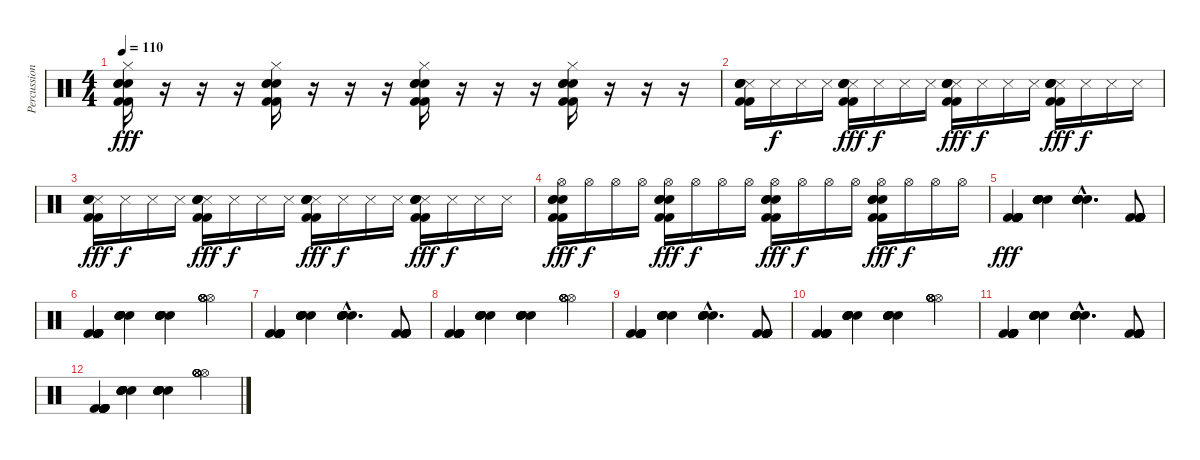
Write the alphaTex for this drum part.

\track ("Percussion" "Percussion") {instrument percussion}
\staff {score}
\articulation defaults
\ts (4 4)
\tempo 110
\clef neutral
\ks c
("Hi-Hat (closed)" "Electric Snare (hit)" "Kick (hit) 2" "Electric Snare (hit)" "Kick (hit) 2" "Electric Snare (hit)").16{dy fff volume 16} r.16 r.16 r.16 ("Hi-Hat (closed)" "Electric Snare (hit)" "Kick (hit) 2" "Electric Snare (hit)" "Kick (hit) 2" "Electric Snare (hit)").16 r.16 r.16 r.16 ("Hi-Hat (closed)" "Electric Snare (hit)" "Kick (hit) 2" "Electric Snare (hit)" "Kick (hit) 2" "Electric Snare (hit)").16 r.16 r.16 r.16 ("Hi-Hat (closed)" "Electric Snare (hit)" "Kick (hit) 2" "Electric Snare (hit)" "Kick (hit) 2" "Electric Snare (hit)").16 r.16 r.16 r.16 |
("Metronome (hit)" "Electric Snare (hit)" "Kick (hit) 2" "Electric Snare (hit)" "Kick (hit) 2" "Electric Snare (hit)").16 "Metronome (hit)".16{dy f} "Metronome (hit)".16 "Metronome (hit)".16 ("Metronome (hit)" "Electric Snare (hit)" "Kick (hit) 2" "Electric Snare (hit)" "Kick (hit) 2" "Electric Snare (hit)").16{dy fff} "Metronome (hit)".16{dy f} "Metronome (hit)".16 "Metronome (hit)".16 ("Metronome (hit)" "Electric Snare (hit)" "Kick (hit) 2" "Electric Snare (hit)" "Kick (hit) 2" "Electric Snare (hit)").16{dy fff} "Metronome (hit)".16{dy f} "Metronome (hit)".16 "Metronome (hit)".16 ("Metronome (hit)" "Electric Snare (hit)" "Kick (hit) 2" "Electric Snare (hit)" "Kick (hit) 2" "Electric Snare (hit)").16{dy fff} "Metronome (hit)".16{dy f} "Metronome (hit)".16 "Metronome (hit)".16 |
("Metronome (hit)" "Electric Snare (hit)" "Kick (hit) 2" "Electric Snare (hit)" "Kick (hit) 2" "Electric Snare (hit)").16{dy fff} "Metronome (hit)".16{dy f} "Metronome (hit)".16 "Metronome (hit)".16 ("Metronome (hit)" "Electric Snare (hit)" "Kick (hit) 2" "Electric Snare (hit)" "Kick (hit) 2" "Electric Snare (hit)").16{dy fff} "Metronome (hit)".16{dy f} "Metronome (hit)".16 "Metronome (hit)".16 ("Metronome (hit)" "Electric Snare (hit)" "Kick (hit) 2" "Electric Snare (hit)" "Kick (hit) 2" "Electric Snare (hit)").16{dy fff} "Metronome (hit)".16{dy f} "Metronome (hit)".16 "Metronome (hit)".16 ("Metronome (hit)" "Electric Snare (hit)" "Kick (hit) 2" "Electric Snare (hit)" "Kick (hit) 2" "Electric Snare (hit)").16{dy fff} "Metronome (hit)".16{dy f} "Metronome (hit)".16 "Metronome (hit)".16 |
("Hi-Hat (open)" "Electric Snare (hit)" "Kick (hit) 2" "Electric Snare (hit)" "Kick (hit) 2" "Electric Snare (hit)").16{dy fff} "Hi-Hat (open)".16{dy f} "Hi-Hat (open)".16 "Hi-Hat (open)".16 ("Hi-Hat (open)" "Electric Snare (hit)" "Kick (hit) 2" "Electric Snare (hit)" "Kick (hit) 2" "Electric Snare (hit)").16{dy fff} "Hi-Hat (open)".16{dy f} "Hi-Hat (open)".16 "Hi-Hat (open)".16 ("Hi-Hat (open)" "Electric Snare (hit)" "Kick (hit) 2" "Electric Snare (hit)" "Kick (hit) 2" "Electric Snare (hit)").16{dy fff} "Hi-Hat (open)".16{dy f} "Hi-Hat (open)".16 "Hi-Hat (open)".16 ("Hi-Hat (open)" "Electric Snare (hit)" "Kick (hit) 2" "Electric Snare (hit)" "Kick (hit) 2" "Electric Snare (hit)").16{dy fff} "Hi-Hat (open)".16{dy f} "Hi-Hat (open)".16 "Hi-Hat (open)".16 |
("Kick (hit) 2" "Kick (hit) 2" "Kick (hit) 2" "Kick (hit) 2" "Kick (hit) 2" "Kick (hit) 2").4{dy fff volume 16} ("Snare (hit) 2" "Snare (hit) 2" "Snare (hit) 2" "Snare (hit) 2" "Snare (hit) 2" "Snare (hit) 2").4 ("Snare (hit) 2"{hac} "Snare (hit) 2"{hac} "Snare (hit) 2"{hac} "Snare (hit) 2"{hac} "Snare (hit) 2"{hac} "Snare (hit) 2"{hac}).4{d} ("Kick (hit) 2" "Kick (hit) 2" "Kick (hit) 2" "Kick (hit) 2" "Kick (hit) 2" "Kick (hit) 2").8 |
("Kick (hit) 2" "Kick (hit) 2" "Kick (hit) 2" "Kick (hit) 2" "Kick (hit) 2" "Kick (hit) 2").4{volume 16} ("Snare (hit) 2" "Snare (hit) 2" "Snare (hit) 2" "Snare (hit) 2" "Snare (hit) 2" "Snare (hit) 2").4 ("Snare (hit) 2" "Snare (hit) 2" "Snare (hit) 2" "Snare (hit) 2" "Snare (hit) 2" "Snare (hit) 2").4 ("Hi-Hat (open)" "Hi-Hat (open)" "Hi-Hat (open)" "Hi-Hat (open)" "Hi-Hat (open)" "Hi-Hat (open)").4 |
("Kick (hit) 2" "Kick (hit) 2" "Kick (hit) 2" "Kick (hit) 2" "Kick (hit) 2" "Kick (hit) 2").4{volume 16} ("Snare (hit) 2" "Snare (hit) 2" "Snare (hit) 2" "Snare (hit) 2" "Snare (hit) 2" "Snare (hit) 2").4 ("Snare (hit) 2"{hac} "Snare (hit) 2"{hac} "Snare (hit) 2"{hac} "Snare (hit) 2"{hac} "Snare (hit) 2"{hac} "Snare (hit) 2"{hac}).4{d} ("Kick (hit) 2" "Kick (hit) 2" "Kick (hit) 2" "Kick (hit) 2" "Kick (hit) 2" "Kick (hit) 2").8 |
("Kick (hit) 2" "Kick (hit) 2" "Kick (hit) 2" "Kick (hit) 2" "Kick (hit) 2" "Kick (hit) 2").4{volume 16} ("Snare (hit) 2" "Snare (hit) 2" "Snare (hit) 2" "Snare (hit) 2" "Snare (hit) 2" "Snare (hit) 2").4 ("Snare (hit) 2" "Snare (hit) 2" "Snare (hit) 2" "Snare (hit) 2" "Snare (hit) 2" "Snare (hit) 2").4 ("Hi-Hat (open)" "Hi-Hat (open)" "Hi-Hat (open)" "Hi-Hat (open)" "Hi-Hat (open)" "Hi-Hat (open)").4 |
("Kick (hit) 2" "Kick (hit) 2" "Kick (hit) 2" "Kick (hit) 2" "Kick (hit) 2" "Kick (hit) 2").4{volume 16} ("Snare (hit) 2" "Snare (hit) 2" "Snare (hit) 2" "Snare (hit) 2" "Snare (hit) 2" "Snare (hit) 2").4 ("Snare (hit) 2"{hac} "Snare (hit) 2"{hac} "Snare (hit) 2"{hac} "Snare (hit) 2"{hac} "Snare (hit) 2"{hac} "Snare (hit) 2"{hac}).4{d} ("Kick (hit) 2" "Kick (hit) 2" "Kick (hit) 2" "Kick (hit) 2" "Kick (hit) 2" "Kick (hit) 2").8 |
("Kick (hit) 2" "Kick (hit) 2" "Kick (hit) 2" "Kick (hit) 2" "Kick (hit) 2" "Kick (hit) 2").4{volume 16} ("Snare (hit) 2" "Snare (hit) 2" "Snare (hit) 2" "Snare (hit) 2" "Snare (hit) 2" "Snare (hit) 2").4 ("Snare (hit) 2" "Snare (hit) 2" "Snare (hit) 2" "Snare (hit) 2" "Snare (hit) 2" "Snare (hit) 2").4 ("Hi-Hat (open)" "Hi-Hat (open)" "Hi-Hat (open)" "Hi-Hat (open)" "Hi-Hat (open)" "Hi-Hat (open)").4 |
("Kick (hit) 2" "Kick (hit) 2" "Kick (hit) 2" "Kick (hit) 2" "Kick (hit) 2" "Kick (hit) 2").4{volume 16} ("Snare (hit) 2" "Snare (hit) 2" "Snare (hit) 2" "Snare (hit) 2" "Snare (hit) 2" "Snare (hit) 2").4 ("Snare (hit) 2"{hac} "Snare (hit) 2"{hac} "Snare (hit) 2"{hac} "Snare (hit) 2"{hac} "Snare (hit) 2"{hac} "Snare (hit) 2"{hac}).4{d} ("Kick (hit) 2" "Kick (hit) 2" "Kick (hit) 2" "Kick (hit) 2" "Kick (hit) 2" "Kick (hit) 2").8 |
("Kick (hit) 2" "Kick (hit) 2" "Kick (hit) 2" "Kick (hit) 2" "Kick (hit) 2" "Kick (hit) 2").4{volume 16} ("Snare (hit) 2" "Snare (hit) 2" "Snare (hit) 2" "Snare (hit) 2" "Snare (hit) 2" "Snare (hit) 2").4 ("Snare (hit) 2" "Snare (hit) 2" "Snare (hit) 2" "Snare (hit) 2" "Snare (hit) 2" "Snare (hit) 2").4 ("Hi-Hat (open)" "Hi-Hat (open)" "Hi-Hat (open)" "Hi-Hat (open)" "Hi-Hat (open)" "Hi-Hat (open)").4
